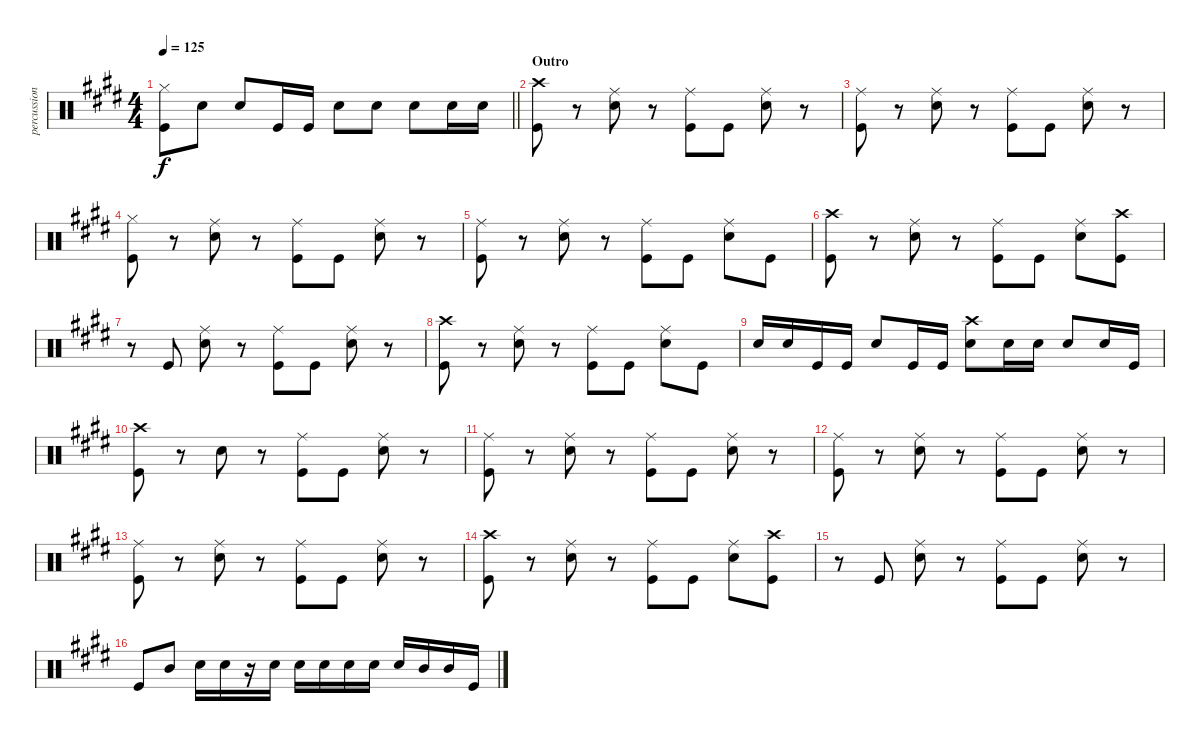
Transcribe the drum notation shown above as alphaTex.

\track ("percussion" "percussion") {instrument percussion}
\staff {score}
\articulation defaults
\ts (4 4)
\tempo 125
\clef neutral
\barLineRight lightlight
\ks e
("Hi-Hat (closed)" "Kick (hit)").8{dy f} "Electric Snare (hit)".8 "Electric Snare (hit)".8 "Kick (hit)".16 "Kick (hit)".16 "Electric Snare (hit)".8 "Electric Snare (hit)".8 "Electric Snare (hit)".8 "Electric Snare (hit)".16 "Electric Snare (hit)".16 |
\section ("" "Outro")
("Crash high (hit)" "Kick (hit)").8 r.8 ("Ride (middle)" "Electric Snare (hit)").8 r.8 ("Ride (middle)" "Kick (hit)").8 "Kick (hit)".8 ("Ride (middle)" "Electric Snare (hit)").8 r.8 |
("Ride (middle)" "Kick (hit)").8 r.8 ("Ride (middle)" "Electric Snare (hit)").8 r.8 ("Ride (middle)" "Kick (hit)").8 "Kick (hit)".8 ("Ride (middle)" "Electric Snare (hit)").8 r.8 |
("Hi-Hat (closed)" "Kick (hit)").8 r.8 ("Ride (middle)" "Electric Snare (hit)").8 r.8 ("Ride (middle)" "Kick (hit)").8 "Kick (hit)".8 ("Ride (middle)" "Electric Snare (hit)").8 r.8 |
("Ride (middle)" "Kick (hit)").8 r.8 ("Ride (middle)" "Electric Snare (hit)").8 r.8 ("Ride (middle)" "Kick (hit)").8 "Kick (hit)".8 ("Ride (middle)" "Electric Snare (hit)").8 "Kick (hit)".8 |
("Crash high (hit)" "Kick (hit)").8 r.8 ("Ride (middle)" "Electric Snare (hit)").8 r.8 ("Ride (middle)" "Kick (hit)").8 "Kick (hit)".8 ("Ride (middle)" "Electric Snare (hit)").8 ("Crash high (hit)" "Kick (hit)").8 |
r.8 "Kick (hit)".8 ("Ride (middle)" "Electric Snare (hit)").8 r.8 ("Ride (middle)" "Kick (hit)").8 "Kick (hit)".8 ("Ride (middle)" "Electric Snare (hit)").8 r.8 |
("Crash high (hit)" "Kick (hit)").8 r.8 ("Ride (middle)" "Electric Snare (hit)").8 r.8 ("Ride (middle)" "Kick (hit)").8 "Kick (hit)".8 ("Ride (middle)" "Electric Snare (hit)").8 "Kick (hit)".8 |
"Electric Snare (hit)".16 "Electric Snare (hit)".16 "Kick (hit)".16 "Kick (hit)".16 "Electric Snare (hit)".8 "Kick (hit)".16 "Kick (hit)".16 ("Crash high (hit)" "Electric Snare (hit)").8 "Electric Snare (hit)".16 "Electric Snare (hit)".16 "Electric Snare (hit)".8 "Electric Snare (hit)".16 "Kick (hit)".16 |
("Crash high (hit)" "Kick (hit)").8 r.8 "Electric Snare (hit)".8 r.8 ("Ride (middle)" "Kick (hit)").8 "Kick (hit)".8 ("Ride (middle)" "Electric Snare (hit)").8 r.8 |
("Ride (middle)" "Kick (hit)").8 r.8 ("Ride (middle)" "Electric Snare (hit)").8 r.8 ("Ride (middle)" "Kick (hit)").8 "Kick (hit)".8 ("Ride (middle)" "Electric Snare (hit)").8 r.8 |
("Ride (middle)" "Kick (hit)").8 r.8 ("Ride (middle)" "Electric Snare (hit)").8 r.8 ("Ride (middle)" "Kick (hit)").8 "Kick (hit)".8 ("Ride (middle)" "Electric Snare (hit)").8 r.8 |
("Ride (middle)" "Kick (hit)").8 r.8 ("Ride (middle)" "Electric Snare (hit)").8 r.8 ("Ride (middle)" "Kick (hit)").8 "Kick (hit)".8 ("Ride (middle)" "Electric Snare (hit)").8 r.8 |
("Crash high (hit)" "Kick (hit)").8 r.8 ("Ride (middle)" "Electric Snare (hit)").8 r.8 ("Ride (middle)" "Kick (hit)").8 "Kick (hit)".8 ("Ride (middle)" "Electric Snare (hit)").8 ("Crash high (hit)" "Kick (hit)").8 |
r.8 "Kick (hit)".8 ("Ride (middle)" "Electric Snare (hit)").8 r.8 ("Ride (middle)" "Kick (hit)").8 "Kick (hit)".8 ("Ride (middle)" "Electric Snare (hit)").8 r.8 |
"Kick (hit)".8 "Mid Tom (hit)".8 "Electric Snare (hit)".16 "Electric Snare (hit)".16 r.16 "Electric Snare (hit)".16 "Electric Snare (hit)".16 "Electric Snare (hit)".16 "Electric Snare (hit)".16 "Electric Snare (hit)".16 "Electric Snare (hit)".16 "Mid Tom (hit)".16 "Mid Tom (hit)".16 "Kick (hit)".16
